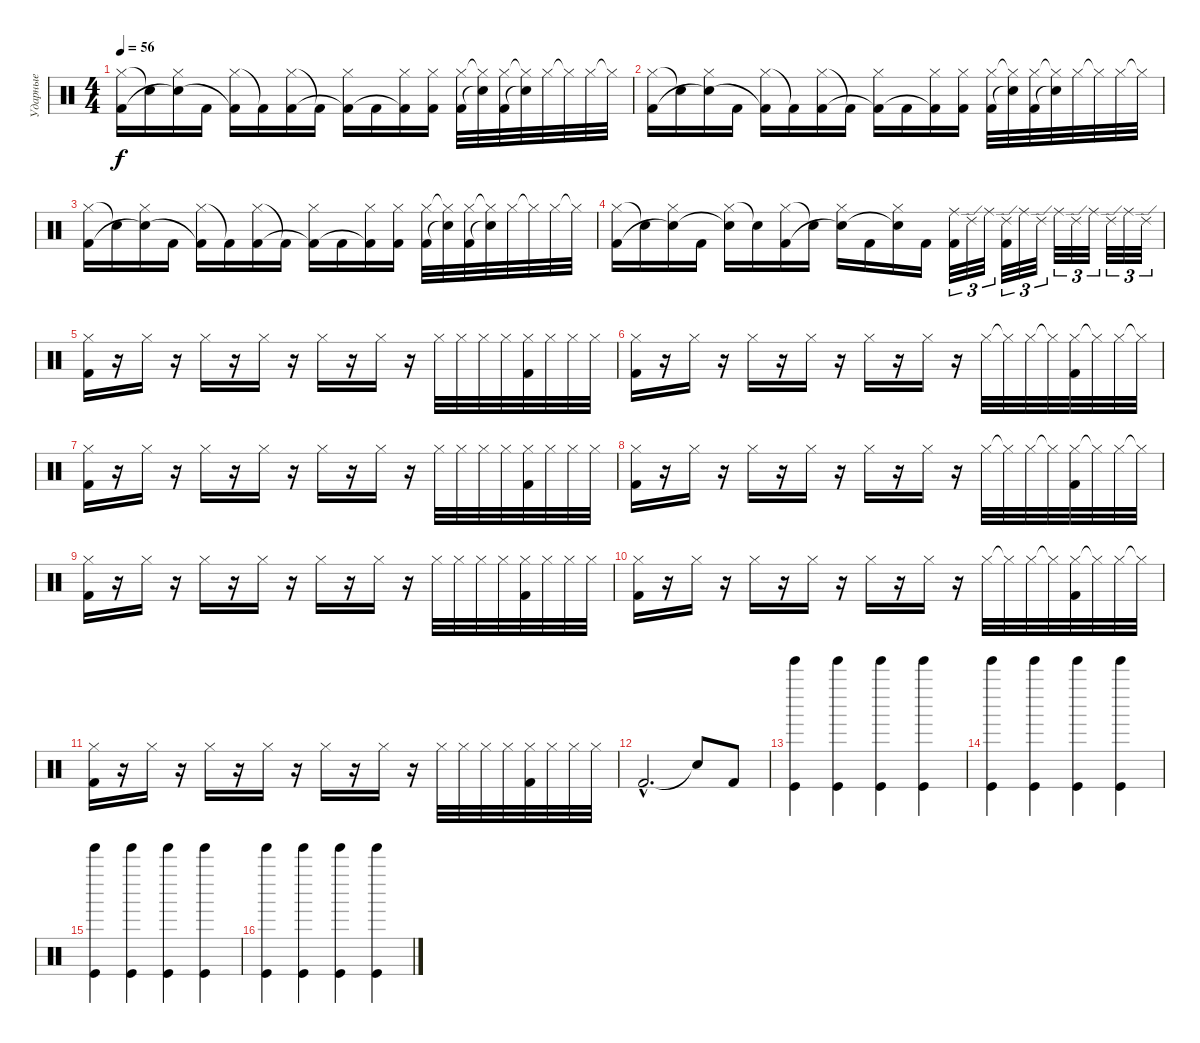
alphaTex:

\track ("Ударные" "Ударные") {instrument percussion}
\staff {score}
\articulation defaults
\ts (4 4)
\tempo 56
\clef neutral
\ks c
("Hi-Hat (closed)" "Kick (hit) 2").16{dy f} "Snare (hit)"{t}.16 ("Hi-Hat (closed)" "Snare (hit)"{t}).16 "Kick (hit) 2".16 ("Hi-Hat (closed)" "Kick (hit) 2"{t}).16 "Kick (hit) 2"{t}.16 ("Hi-Hat (closed)" "Kick (hit) 2").16 "Kick (hit) 2"{t}.16 ("Hi-Hat (closed)" "Kick (hit) 2"{t}).16 "Kick (hit) 2".16 ("Hi-Hat (closed)" "Kick (hit) 2"{t}).16 ("Hi-Hat (closed)" "Kick (hit) 2").16 ("Hi-Hat (closed)" "Kick (hit) 2").32 ("Hi-Hat (closed)"{t} "Snare (hit)"{t}).32 ("Hi-Hat (closed)" "Kick (hit) 2").32 ("Hi-Hat (closed)"{t} "Snare (hit)"{t}).32 "Hi-Hat (closed)".32 "Hi-Hat (closed)"{t}.32 "Hi-Hat (closed)".32 "Hi-Hat (closed)"{t}.32 |
("Hi-Hat (closed)" "Kick (hit) 2").16 "Snare (hit)"{t}.16 ("Hi-Hat (closed)" "Snare (hit)"{t}).16 "Kick (hit) 2".16 ("Hi-Hat (closed)" "Kick (hit) 2"{t}).16 "Kick (hit) 2"{t}.16 ("Hi-Hat (closed)" "Kick (hit) 2").16 "Kick (hit) 2"{t}.16 ("Hi-Hat (closed)" "Kick (hit) 2"{t}).16 "Kick (hit) 2".16 ("Hi-Hat (closed)" "Kick (hit) 2"{t}).16 ("Hi-Hat (closed)" "Kick (hit) 2").16 ("Hi-Hat (closed)" "Kick (hit) 2").32 ("Hi-Hat (closed)"{t} "Snare (hit)"{t}).32 ("Hi-Hat (closed)" "Kick (hit) 2").32 ("Hi-Hat (closed)"{t} "Snare (hit)"{t}).32 "Hi-Hat (closed)".32 "Hi-Hat (closed)"{t}.32 "Hi-Hat (closed)".32 "Hi-Hat (closed)"{t}.32 |
("Hi-Hat (closed)" "Kick (hit) 2").16 "Snare (hit)"{t}.16 ("Hi-Hat (closed)" "Snare (hit)"{t}).16 "Kick (hit) 2".16 ("Hi-Hat (closed)" "Kick (hit) 2"{t}).16 "Kick (hit) 2"{t}.16 ("Hi-Hat (closed)" "Kick (hit) 2").16 "Kick (hit) 2"{t}.16 ("Hi-Hat (closed)" "Kick (hit) 2"{t}).16 "Kick (hit) 2".16 ("Hi-Hat (closed)" "Kick (hit) 2"{t}).16 ("Hi-Hat (closed)" "Kick (hit) 2").16 ("Hi-Hat (closed)" "Kick (hit) 2").32 ("Hi-Hat (closed)"{t} "Snare (hit)"{t}).32 ("Hi-Hat (closed)" "Kick (hit) 2").32 ("Hi-Hat (closed)"{t} "Snare (hit)"{t}).32 "Hi-Hat (closed)".32 "Hi-Hat (closed)"{t}.32 "Hi-Hat (closed)".32 "Hi-Hat (closed)"{t}.32 |
("Hi-Hat (closed)" "Kick (hit) 2").16 "Snare (hit)"{t}.16 ("Hi-Hat (closed)" "Snare (hit)"{t}).16 "Kick (hit) 2".16 ("Hi-Hat (closed)" "Snare (hit)"{t}).16 "Snare (hit)"{t}.16 ("Hi-Hat (closed)" "Kick (hit) 2").16 "Snare (hit)"{t}.16 ("Hi-Hat (closed)" "Snare (hit)"{t}).16 "Kick (hit) 2".16 ("Hi-Hat (closed)" "Snare (hit)"{t}).16 "Kick (hit) 2".16 ("Ride (middle)" "Kick (hit) 2").32{tu (3 2)} "Ride (edge) 2".32{tu (3 2)} "Ride (middle)".32{tu (3 2)} ("Ride (edge) 2" "Kick (hit) 2").32{tu (3 2)} "Ride (middle)".32{tu (3 2)} "Ride (edge) 2".32{tu (3 2)} "Ride (middle)".32{tu (3 2)} "Ride (edge) 2".32{tu (3 2)} "Ride (middle)".32{tu (3 2)} "Ride (edge) 2".32{tu (3 2)} "Ride (middle)".32{tu (3 2)} "Ride (edge) 2".32{tu (3 2)} |
("Hi-Hat (closed)" "Kick (hit) 2").16 r.16 "Hi-Hat (closed)".16 r.16 "Hi-Hat (closed)".16 r.16 "Hi-Hat (closed)".16 r.16 "Hi-Hat (closed)".16 r.16 "Hi-Hat (closed)".16 r.16 "Hi-Hat (closed)".32 "Hi-Hat (closed)".32 "Hi-Hat (closed)".32 "Hi-Hat (closed)".32 ("Hi-Hat (closed)" "Kick (hit) 2").32 "Hi-Hat (closed)".32 "Hi-Hat (closed)".32 "Hi-Hat (closed)".32 |
("Hi-Hat (closed)" "Kick (hit) 2").16 r.16 "Hi-Hat (closed)".16 r.16 "Hi-Hat (closed)".16 r.16 "Hi-Hat (closed)".16 r.16 "Hi-Hat (closed)".16 r.16 "Hi-Hat (closed)".16 r.16 "Hi-Hat (closed)".32 "Hi-Hat (closed)"{t}.32 "Hi-Hat (closed)".32 "Hi-Hat (closed)"{t}.32 ("Hi-Hat (closed)" "Kick (hit) 2").32 "Hi-Hat (closed)"{t}.32 "Hi-Hat (closed)".32 "Hi-Hat (closed)"{t}.32 |
("Hi-Hat (closed)" "Kick (hit) 2").16 r.16 "Hi-Hat (closed)".16 r.16 "Hi-Hat (closed)".16 r.16 "Hi-Hat (closed)".16 r.16 "Hi-Hat (closed)".16 r.16 "Hi-Hat (closed)".16 r.16 "Hi-Hat (closed)".32 "Hi-Hat (closed)".32 "Hi-Hat (closed)".32 "Hi-Hat (closed)".32 ("Hi-Hat (closed)" "Kick (hit) 2").32 "Hi-Hat (closed)".32 "Hi-Hat (closed)".32 "Hi-Hat (closed)".32 |
("Hi-Hat (closed)" "Kick (hit) 2").16 r.16 "Hi-Hat (closed)".16 r.16 "Hi-Hat (closed)".16 r.16 "Hi-Hat (closed)".16 r.16 "Hi-Hat (closed)".16 r.16 "Hi-Hat (closed)".16 r.16 "Hi-Hat (closed)".32 "Hi-Hat (closed)"{t}.32 "Hi-Hat (closed)".32 "Hi-Hat (closed)"{t}.32 ("Hi-Hat (closed)" "Kick (hit) 2").32 "Hi-Hat (closed)"{t}.32 "Hi-Hat (closed)".32 "Hi-Hat (closed)"{t}.32 |
("Hi-Hat (closed)" "Kick (hit) 2").16 r.16 "Hi-Hat (closed)".16 r.16 "Hi-Hat (closed)".16 r.16 "Hi-Hat (closed)".16 r.16 "Hi-Hat (closed)".16 r.16 "Hi-Hat (closed)".16 r.16 "Hi-Hat (closed)".32 "Hi-Hat (closed)".32 "Hi-Hat (closed)".32 "Hi-Hat (closed)".32 ("Hi-Hat (closed)" "Kick (hit) 2").32 "Hi-Hat (closed)".32 "Hi-Hat (closed)".32 "Hi-Hat (closed)".32 |
("Hi-Hat (closed)" "Kick (hit) 2").16 r.16 "Hi-Hat (closed)".16 r.16 "Hi-Hat (closed)".16 r.16 "Hi-Hat (closed)".16 r.16 "Hi-Hat (closed)".16 r.16 "Hi-Hat (closed)".16 r.16 "Hi-Hat (closed)".32 "Hi-Hat (closed)"{t}.32 "Hi-Hat (closed)".32 "Hi-Hat (closed)"{t}.32 ("Hi-Hat (closed)" "Kick (hit) 2").32 "Hi-Hat (closed)"{t}.32 "Hi-Hat (closed)".32 "Hi-Hat (closed)"{t}.32 |
("Hi-Hat (closed)" "Kick (hit) 2").16 r.16 "Hi-Hat (closed)".16 r.16 "Hi-Hat (closed)".16 r.16 "Hi-Hat (closed)".16 r.16 "Hi-Hat (closed)".16 r.16 "Hi-Hat (closed)".16 r.16 "Hi-Hat (closed)".32 "Hi-Hat (closed)".32 "Hi-Hat (closed)".32 "Hi-Hat (closed)".32 ("Hi-Hat (closed)" "Kick (hit) 2").32 "Hi-Hat (closed)".32 "Hi-Hat (closed)".32 "Hi-Hat (closed)".32 |
"Kick (hit) 2"{hac}.2{d} "Snare (hit)"{t}.8 "Kick (hit) 2".8 |
("Tinkle Bell (hit)" "Kick (hit)").4 ("Tinkle Bell (hit)" "Kick (hit)").4 ("Tinkle Bell (hit)" "Kick (hit)").4 ("Tinkle Bell (hit)" "Kick (hit)").4 |
("Tinkle Bell (hit)" "Kick (hit)").4 ("Tinkle Bell (hit)" "Kick (hit)").4 ("Tinkle Bell (hit)" "Kick (hit)").4 ("Tinkle Bell (hit)" "Kick (hit)").4 |
("Tinkle Bell (hit)" "Kick (hit)").4 ("Tinkle Bell (hit)" "Kick (hit)").4 ("Tinkle Bell (hit)" "Kick (hit)").4 ("Tinkle Bell (hit)" "Kick (hit)").4 |
("Tinkle Bell (hit)" "Kick (hit)").4 ("Tinkle Bell (hit)" "Kick (hit)").4 ("Tinkle Bell (hit)" "Kick (hit)").4 ("Tinkle Bell (hit)" "Kick (hit)").4
